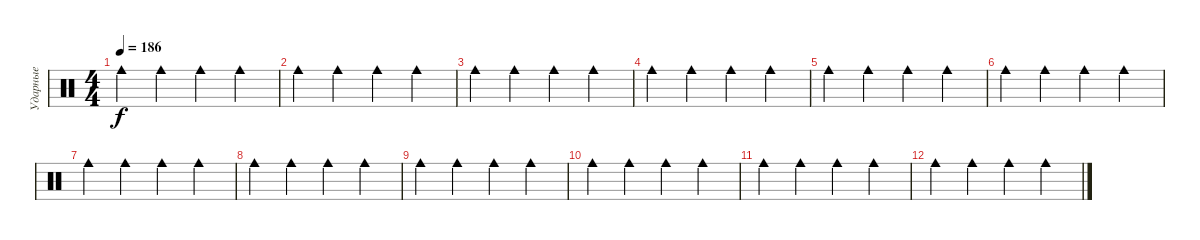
\track ("Ударные" "Ударные") {mute instrument percussion}
\staff {score}
\articulation defaults
\ts (4 4)
\tempo 186
\clef neutral
\ks c "Cowbell medium (hit)".4{dy f} "Cowbell medium (hit)".4 "Cowbell medium (hit)".4 "Cowbell medium (hit)".4
|
"Cowbell medium (hit)".4 "Cowbell medium (hit)".4 "Cowbell medium (hit)".4 "Cowbell medium (hit)".4 |
"Cowbell medium (hit)".4 "Cowbell medium (hit)".4 "Cowbell medium (hit)".4 "Cowbell medium (hit)".4 |
"Cowbell medium (hit)".4 "Cowbell medium (hit)".4 "Cowbell medium (hit)".4 "Cowbell medium (hit)".4 |
"Cowbell medium (hit)".4 "Cowbell medium (hit)".4 "Cowbell medium (hit)".4 "Cowbell medium (hit)".4 |
"Cowbell medium (hit)".4 "Cowbell medium (hit)".4 "Cowbell medium (hit)".4 "Cowbell medium (hit)".4 |
"Cowbell medium (hit)".4 "Cowbell medium (hit)".4 "Cowbell medium (hit)".4 "Cowbell medium (hit)".4 |
"Cowbell medium (hit)".4 "Cowbell medium (hit)".4 "Cowbell medium (hit)".4 "Cowbell medium (hit)".4 |
"Cowbell medium (hit)".4 "Cowbell medium (hit)".4 "Cowbell medium (hit)".4 "Cowbell medium (hit)".4 |
"Cowbell medium (hit)".4 "Cowbell medium (hit)".4 "Cowbell medium (hit)".4 "Cowbell medium (hit)".4 |
"Cowbell medium (hit)".4 "Cowbell medium (hit)".4 "Cowbell medium (hit)".4 "Cowbell medium (hit)".4 |
"Cowbell medium (hit)".4 "Cowbell medium (hit)".4 "Cowbell medium (hit)".4 "Cowbell medium (hit)".4
